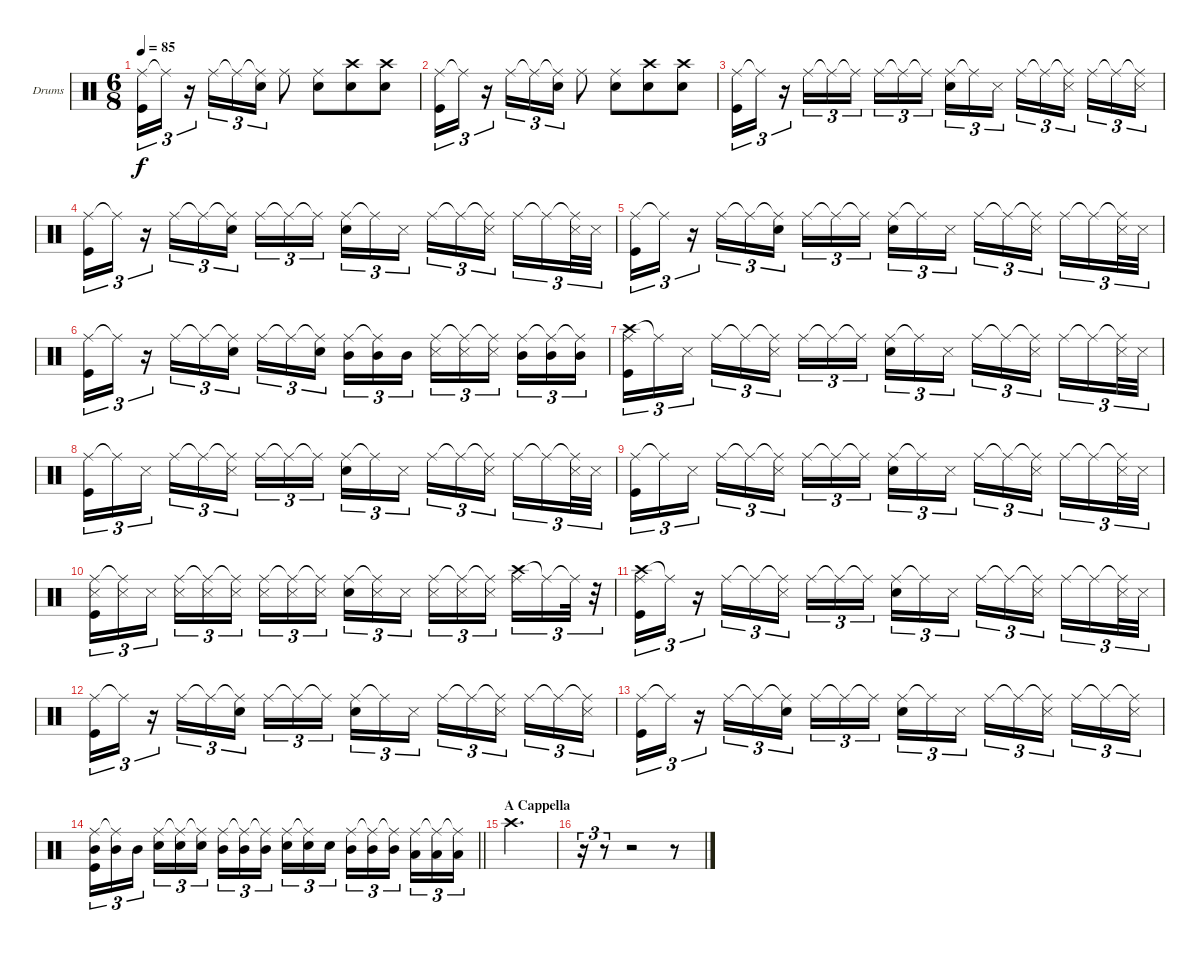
\bracketExtendMode groupsimilarinstruments
\firstSystemTrackNameOrientation horizontal
\otherSystemsTrackNameOrientation horizontal
\track ("Drumkit" "Drums") {instrument percussion}
\staff {score}
\articulation defaults
\ts (6 8)
\tempo 85
\clef neutral
\ks c
("Ride (middle)" "Kick (hit)").16{tu (3 2) dy f} "Ride (middle)"{t}.16{tu (3 2)} r.16{tu (3 2)} "Ride (middle)".16{tu (3 2)} "Ride (middle)"{t}.16{tu (3 2)} ("Ride (middle)"{t} "Snare (hit) 2").16{tu (3 2)} "Ride (middle)".8 ("Ride (middle)" "Snare (hit) 2").8 ("Crash high (hit)" "Snare (hit) 2").8 ("Crash high (hit)" "Snare (hit) 2").8 |
("Ride (middle)" "Kick (hit)").16{tu (3 2)} "Ride (middle)"{t}.16{tu (3 2)} r.16{tu (3 2)} "Ride (middle)".16{tu (3 2)} "Ride (middle)"{t}.16{tu (3 2)} ("Ride (middle)"{t} "Snare (hit) 2").16{tu (3 2)} "Ride (middle)".8 ("Ride (middle)" "Snare (hit) 2").8 ("Crash high (hit)" "Snare (hit) 2").8 ("Crash high (hit)" "Snare (hit) 2").8 |
("Ride (middle)" "Kick (hit)").16{tu (3 2)} "Ride (middle)"{t}.16{tu (3 2)} r.16{tu (3 2)} "Ride (middle)".16{tu (3 2)} "Ride (middle)"{t}.16{tu (3 2)} "Ride (middle)"{t}.16{tu (3 2)} "Ride (middle)".16{tu (3 2)} "Ride (middle)"{t}.16{tu (3 2)} "Ride (middle)"{t}.16{tu (3 2)} ("Ride (middle)" "Snare (hit) 2").16{tu (3 2)} "Ride (middle)"{t}.16{tu (3 2)} "Snare (side stick) 3".16{tu (3 2)} "Ride (middle)".16{tu (3 2)} "Ride (middle)"{t}.16{tu (3 2)} ("Ride (middle)"{t} "Snare (side stick) 3").16{tu (3 2)} "Ride (middle)".16{tu (3 2)} "Ride (middle)"{t}.16{tu (3 2)} ("Ride (middle)"{t} "Snare (side stick) 3").16{tu (3 2)} |
("Ride (middle)" "Kick (hit)").16{tu (3 2)} "Ride (middle)"{t}.16{tu (3 2)} r.16{tu (3 2)} "Ride (middle)".16{tu (3 2)} "Ride (middle)"{t}.16{tu (3 2)} ("Ride (middle)"{t} "Snare (hit) 2").16{tu (3 2)} "Ride (middle)".16{tu (3 2)} "Ride (middle)"{t}.16{tu (3 2)} "Ride (middle)"{t}.16{tu (3 2)} ("Ride (middle)" "Snare (hit) 2").16{tu (3 2)} "Ride (middle)"{t}.16{tu (3 2)} "Snare (side stick) 3".16{tu (3 2)} "Ride (middle)".16{tu (3 2)} "Ride (middle)"{t}.16{tu (3 2)} ("Ride (middle)"{t} "Snare (side stick) 3").16{tu (3 2)} "Ride (middle)".16{tu (3 2)} "Ride (middle)"{t}.16{tu (3 2)} ("Ride (middle)"{t} "Snare (side stick) 3").32{tu (3 2)} "Snare (side stick) 3".32{tu (3 2)} |
("Ride (middle)" "Kick (hit)").16{tu (3 2)} "Ride (middle)"{t}.16{tu (3 2)} r.16{tu (3 2)} "Ride (middle)".16{tu (3 2)} "Ride (middle)"{t}.16{tu (3 2)} ("Ride (middle)"{t} "Snare (hit) 2").16{tu (3 2)} "Ride (middle)".16{tu (3 2)} "Ride (middle)"{t}.16{tu (3 2)} "Ride (middle)"{t}.16{tu (3 2)} ("Ride (middle)" "Snare (hit) 2").16{tu (3 2)} "Ride (middle)"{t}.16{tu (3 2)} "Snare (side stick) 3".16{tu (3 2)} "Ride (middle)".16{tu (3 2)} "Ride (middle)"{t}.16{tu (3 2)} ("Ride (middle)"{t} "Snare (side stick) 3").16{tu (3 2)} "Ride (middle)".16{tu (3 2)} "Ride (middle)"{t}.16{tu (3 2)} ("Ride (middle)"{t} "Snare (side stick) 3").32{tu (3 2)} "Snare (side stick) 3".32{tu (3 2)} |
("Ride (middle)" "Kick (hit)").16{tu (3 2)} "Ride (middle)"{t}.16{tu (3 2)} r.16{tu (3 2)} "Ride (middle)".16{tu (3 2)} "Ride (middle)"{t}.16{tu (3 2)} ("Ride (middle)"{t} "Snare (hit) 2").16{tu (3 2)} "Ride (middle)".16{tu (3 2)} "Ride (middle)"{t}.16{tu (3 2)} ("Ride (middle)"{t} "Snare (hit) 2").16{tu (3 2)} ("Ride (middle)" "Mid Tom (hit)").16{tu (3 2)} ("Ride (middle)"{t} "Mid Tom (hit)").16{tu (3 2)} "Mid Tom (hit)".16{tu (3 2)} ("Ride (middle)" "Snare (side stick) 3").16{tu (3 2)} ("Ride (middle)"{t} "Snare (side stick) 3").16{tu (3 2)} ("Ride (middle)"{t} "Snare (side stick) 3").16{tu (3 2)} ("Ride (middle)" "Mid Tom (hit)").16{tu (3 2)} ("Ride (middle)"{t} "Mid Tom (hit)").16{tu (3 2)} ("Ride (middle)"{t} "Mid Tom (hit)").16{tu (3 2)} |
("Crash high (hit)" "Ride (middle)" "Kick (hit)").16{tu (3 2)} "Ride (middle)"{t}.16{tu (3 2)} "Snare (side stick) 3".16{tu (3 2)} "Ride (middle)".16{tu (3 2)} "Ride (middle)"{t}.16{tu (3 2)} ("Ride (middle)"{t} "Snare (side stick) 3").16{tu (3 2)} "Ride (middle)".16{tu (3 2)} "Ride (middle)"{t}.16{tu (3 2)} "Ride (middle)"{t}.16{tu (3 2)} ("Ride (middle)" "Snare (hit) 2").16{tu (3 2)} "Ride (middle)"{t}.16{tu (3 2)} "Snare (side stick) 3".16{tu (3 2)} "Ride (middle)".16{tu (3 2)} "Ride (middle)"{t}.16{tu (3 2)} ("Ride (middle)"{t} "Snare (side stick) 3").16{tu (3 2)} "Ride (middle)".16{tu (3 2)} "Ride (middle)"{t}.16{tu (3 2)} ("Ride (middle)"{t} "Snare (side stick) 3").32{tu (3 2)} "Snare (side stick) 3".32{tu (3 2)} |
("Ride (middle)" "Kick (hit)").16{tu (3 2)} "Ride (middle)"{t}.16{tu (3 2)} "Snare (side stick) 3".16{tu (3 2)} "Ride (middle)".16{tu (3 2)} "Ride (middle)"{t}.16{tu (3 2)} ("Ride (middle)"{t} "Snare (side stick) 3").16{tu (3 2)} "Ride (middle)".16{tu (3 2)} "Ride (middle)"{t}.16{tu (3 2)} "Ride (middle)"{t}.16{tu (3 2)} ("Ride (middle)" "Snare (hit) 2").16{tu (3 2)} "Ride (middle)"{t}.16{tu (3 2)} "Snare (side stick) 3".16{tu (3 2)} "Ride (middle)".16{tu (3 2)} "Ride (middle)"{t}.16{tu (3 2)} ("Ride (middle)"{t} "Snare (side stick) 3").16{tu (3 2)} "Ride (middle)".16{tu (3 2)} "Ride (middle)"{t}.16{tu (3 2)} ("Ride (middle)"{t} "Snare (side stick) 3").32{tu (3 2)} "Snare (side stick) 3".32{tu (3 2)} |
("Ride (middle)" "Kick (hit)").16{tu (3 2)} "Ride (middle)"{t}.16{tu (3 2)} "Snare (side stick) 3".16{tu (3 2)} "Ride (middle)".16{tu (3 2)} "Ride (middle)"{t}.16{tu (3 2)} ("Ride (middle)"{t} "Snare (side stick) 3").16{tu (3 2)} "Ride (middle)".16{tu (3 2)} "Ride (middle)"{t}.16{tu (3 2)} "Ride (middle)"{t}.16{tu (3 2)} ("Ride (middle)" "Snare (hit) 2").16{tu (3 2)} "Ride (middle)"{t}.16{tu (3 2)} "Snare (side stick) 3".16{tu (3 2)} "Ride (middle)".16{tu (3 2)} "Ride (middle)"{t}.16{tu (3 2)} ("Ride (middle)"{t} "Snare (side stick) 3").16{tu (3 2)} "Ride (middle)".16{tu (3 2)} "Ride (middle)"{t}.16{tu (3 2)} ("Ride (middle)"{t} "Snare (side stick) 3").32{tu (3 2)} "Snare (side stick) 3".32{tu (3 2)} |
("Ride (middle)" "Snare (side stick) 3" "Kick (hit)").16{tu (3 2)} ("Ride (middle)"{t} "Snare (side stick) 3").16{tu (3 2)} "Snare (side stick) 3".16{tu (3 2)} ("Ride (middle)" "Snare (side stick) 3").16{tu (3 2)} ("Ride (middle)"{t} "Snare (side stick) 3").16{tu (3 2)} ("Ride (middle)"{t} "Snare (side stick) 3").16{tu (3 2)} ("Ride (middle)" "Snare (side stick) 3").16{tu (3 2)} ("Ride (middle)"{t} "Snare (side stick) 3").16{tu (3 2)} ("Ride (middle)"{t} "Snare (side stick) 3").16{tu (3 2)} ("Ride (middle)" "Snare (hit) 2").16{tu (3 2)} ("Ride (middle)"{t} "Snare (side stick) 3").16{tu (3 2)} "Snare (side stick) 3".16{tu (3 2)} ("Ride (middle)" "Snare (side stick) 3").16{tu (3 2)} ("Ride (middle)"{t} "Snare (side stick) 3").16{tu (3 2)} ("Ride (middle)"{t} "Snare (side stick) 3").16{tu (3 2)} ("Crash high (hit)" "Ride (middle)").16{tu (3 2)} "Ride (middle)"{t}.16{tu (3 2)} "Ride (middle)"{t}.32{tu (3 2)} r.32{tu (3 2)} |
("Crash high (hit)" "Ride (middle)" "Kick (hit)").16{tu (3 2)} "Ride (middle)"{t}.16{tu (3 2)} r.16{tu (3 2)} "Ride (middle)".16{tu (3 2)} "Ride (middle)"{t}.16{tu (3 2)} ("Ride (middle)"{t} "Snare (side stick) 3").16{tu (3 2)} "Ride (middle)".16{tu (3 2)} "Ride (middle)"{t}.16{tu (3 2)} "Ride (middle)"{t}.16{tu (3 2)} ("Ride (middle)" "Snare (hit) 2").16{tu (3 2)} "Ride (middle)"{t}.16{tu (3 2)} "Snare (side stick) 3".16{tu (3 2)} "Ride (middle)".16{tu (3 2)} "Ride (middle)"{t}.16{tu (3 2)} ("Ride (middle)"{t} "Snare (side stick) 3").16{tu (3 2)} "Ride (middle)".16{tu (3 2)} "Ride (middle)"{t}.16{tu (3 2)} ("Ride (middle)"{t} "Snare (side stick) 3").32{tu (3 2)} "Snare (side stick) 3".32{tu (3 2)} |
("Ride (middle)" "Kick (hit)").16{tu (3 2)} "Ride (middle)"{t}.16{tu (3 2)} r.16{tu (3 2)} "Ride (middle)".16{tu (3 2)} "Ride (middle)"{t}.16{tu (3 2)} ("Ride (middle)"{t} "Snare (hit) 2").16{tu (3 2)} "Ride (middle)".16{tu (3 2)} "Ride (middle)"{t}.16{tu (3 2)} "Ride (middle)"{t}.16{tu (3 2)} ("Ride (middle)" "Snare (hit) 2").16{tu (3 2)} "Ride (middle)"{t}.16{tu (3 2)} "Snare (side stick) 3".16{tu (3 2)} "Ride (middle)".16{tu (3 2)} "Ride (middle)"{t}.16{tu (3 2)} ("Ride (middle)"{t} "Snare (side stick) 3").16{tu (3 2)} "Ride (middle)".16{tu (3 2)} "Ride (middle)"{t}.16{tu (3 2)} ("Ride (middle)"{t} "Snare (side stick) 3").16{tu (3 2)} |
("Ride (middle)" "Kick (hit)").16{tu (3 2)} "Ride (middle)"{t}.16{tu (3 2)} r.16{tu (3 2)} "Ride (middle)".16{tu (3 2)} "Ride (middle)"{t}.16{tu (3 2)} ("Ride (middle)"{t} "Snare (hit) 2").16{tu (3 2)} "Ride (middle)".16{tu (3 2)} "Ride (middle)"{t}.16{tu (3 2)} "Ride (middle)"{t}.16{tu (3 2)} ("Ride (middle)" "Snare (hit) 2").16{tu (3 2)} "Ride (middle)"{t}.16{tu (3 2)} "Snare (side stick) 3".16{tu (3 2)} "Ride (middle)".16{tu (3 2)} "Ride (middle)"{t}.16{tu (3 2)} ("Ride (middle)"{t} "Snare (side stick) 3").16{tu (3 2)} "Ride (middle)".16{tu (3 2)} "Ride (middle)"{t}.16{tu (3 2)} ("Ride (middle)"{t} "Snare (side stick) 3").16{tu (3 2)} |
\barLineRight lightlight
("Ride (middle)" "Mid Tom (hit)" "Kick (hit)").16{tu (3 2)} ("Ride (middle)"{t} "Mid Tom (hit)").16{tu (3 2)} "Mid Tom (hit)".16{tu (3 2)} ("Ride (middle)" "Snare (hit) 2").16{tu (3 2)} ("Ride (middle)"{t} "Snare (hit) 2").16{tu (3 2)} ("Ride (middle)"{t} "Snare (hit) 2").16{tu (3 2)} ("Ride (middle)" "Mid Tom (hit)").16{tu (3 2)} ("Ride (middle)"{t} "Mid Tom (hit)").16{tu (3 2)} ("Ride (middle)"{t} "Mid Tom (hit)").16{tu (3 2)} ("Ride (middle)" "Snare (hit) 2").16{tu (3 2)} ("Ride (middle)"{t} "Snare (hit) 2").16{tu (3 2)} "Snare (hit) 2".16{tu (3 2)} ("Ride (middle)" "Mid Tom (hit)").16{tu (3 2)} ("Ride (middle)"{t} "Mid Tom (hit)").16{tu (3 2)} ("Ride (middle)"{t} "Mid Tom (hit)").16{tu (3 2)} ("Ride (middle)" "Low Tom (hit)").16{tu (3 2)} ("Ride (middle)"{t} "Low Tom (hit)").16{tu (3 2)} ("Ride (middle)"{t} "Low Tom (hit)").16{tu (3 2)} |
\section ("" "A Cappella")
"Crash high (hit)".2{d} |
r.16{tu (3 2)} r.8{tu (3 2)} r.2 r.8
